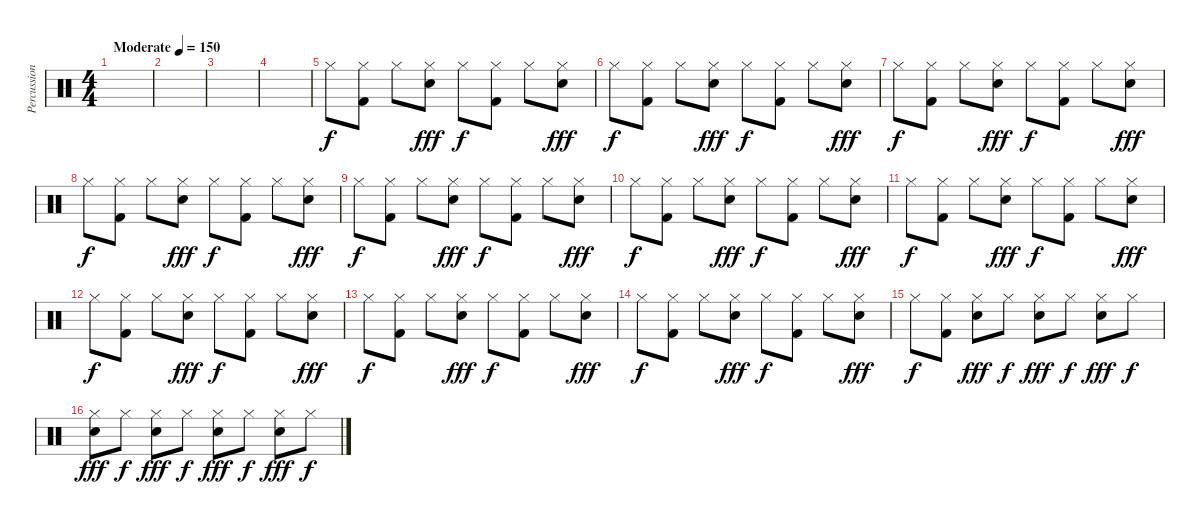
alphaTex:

\track ("Percussion" "Percussion") {instrument percussion}
\staff {score}
\articulation defaults
\ts (4 4)
\tempo (150 "Moderate")
\clef neutral
\ks c
|
|
|
|
"Hi-Hat (closed)".8 ("Hi-Hat (closed)" "Kick (hit) 2").8 "Hi-Hat (closed)".8 ("Hi-Hat (closed)" "Electric Snare (hit)").8{dy fff} "Hi-Hat (closed)".8{dy f} ("Hi-Hat (closed)" "Kick (hit) 2").8 "Hi-Hat (closed)".8 ("Hi-Hat (closed)" "Electric Snare (hit)").8{dy fff} |
"Hi-Hat (closed)".8{dy f} ("Hi-Hat (closed)" "Kick (hit) 2").8 "Hi-Hat (closed)".8 ("Hi-Hat (closed)" "Electric Snare (hit)").8{dy fff} "Hi-Hat (closed)".8{dy f} ("Hi-Hat (closed)" "Kick (hit) 2").8 "Hi-Hat (closed)".8 ("Hi-Hat (closed)" "Electric Snare (hit)").8{dy fff} |
"Hi-Hat (closed)".8{dy f} ("Hi-Hat (closed)" "Kick (hit) 2").8 "Hi-Hat (closed)".8 ("Hi-Hat (closed)" "Electric Snare (hit)").8{dy fff} "Hi-Hat (closed)".8{dy f} ("Hi-Hat (closed)" "Kick (hit) 2").8 "Hi-Hat (closed)".8 ("Hi-Hat (closed)" "Electric Snare (hit)").8{dy fff} |
"Hi-Hat (closed)".8{dy f} ("Hi-Hat (closed)" "Kick (hit) 2").8 "Hi-Hat (closed)".8 ("Hi-Hat (closed)" "Electric Snare (hit)").8{dy fff} "Hi-Hat (closed)".8{dy f} ("Hi-Hat (closed)" "Kick (hit) 2").8 "Hi-Hat (closed)".8 ("Hi-Hat (closed)" "Electric Snare (hit)").8{dy fff} |
"Hi-Hat (closed)".8{dy f} ("Hi-Hat (closed)" "Kick (hit) 2").8 "Hi-Hat (closed)".8 ("Hi-Hat (closed)" "Electric Snare (hit)").8{dy fff} "Hi-Hat (closed)".8{dy f} ("Hi-Hat (closed)" "Kick (hit) 2").8 "Hi-Hat (closed)".8 ("Hi-Hat (closed)" "Electric Snare (hit)").8{dy fff} |
"Hi-Hat (closed)".8{dy f} ("Hi-Hat (closed)" "Kick (hit) 2").8 "Hi-Hat (closed)".8 ("Hi-Hat (closed)" "Electric Snare (hit)").8{dy fff} "Hi-Hat (closed)".8{dy f} ("Hi-Hat (closed)" "Kick (hit) 2").8 "Hi-Hat (closed)".8 ("Hi-Hat (closed)" "Electric Snare (hit)").8{dy fff} |
"Hi-Hat (closed)".8{dy f} ("Hi-Hat (closed)" "Kick (hit) 2").8 "Hi-Hat (closed)".8 ("Hi-Hat (closed)" "Electric Snare (hit)").8{dy fff} "Hi-Hat (closed)".8{dy f} ("Hi-Hat (closed)" "Kick (hit) 2").8 "Hi-Hat (closed)".8 ("Hi-Hat (closed)" "Electric Snare (hit)").8{dy fff} |
"Hi-Hat (closed)".8{dy f} ("Hi-Hat (closed)" "Kick (hit) 2").8 "Hi-Hat (closed)".8 ("Hi-Hat (closed)" "Electric Snare (hit)").8{dy fff} "Hi-Hat (closed)".8{dy f} ("Hi-Hat (closed)" "Kick (hit) 2").8 "Hi-Hat (closed)".8 ("Hi-Hat (closed)" "Electric Snare (hit)").8{dy fff} |
"Hi-Hat (closed)".8{dy f} ("Hi-Hat (closed)" "Kick (hit) 2").8 "Hi-Hat (closed)".8 ("Hi-Hat (closed)" "Electric Snare (hit)").8{dy fff} "Hi-Hat (closed)".8{dy f} ("Hi-Hat (closed)" "Kick (hit) 2").8 "Hi-Hat (closed)".8 ("Hi-Hat (closed)" "Electric Snare (hit)").8{dy fff} |
"Hi-Hat (closed)".8{dy f} ("Hi-Hat (closed)" "Kick (hit) 2").8 "Hi-Hat (closed)".8 ("Hi-Hat (closed)" "Electric Snare (hit)").8{dy fff} "Hi-Hat (closed)".8{dy f} ("Hi-Hat (closed)" "Kick (hit) 2").8 "Hi-Hat (closed)".8 ("Hi-Hat (closed)" "Electric Snare (hit)").8{dy fff} |
"Hi-Hat (closed)".8{dy f} ("Hi-Hat (closed)" "Kick (hit) 2").8 ("Hi-Hat (closed)" "Electric Snare (hit)").8{dy fff} "Hi-Hat (closed)".8{dy f} ("Hi-Hat (closed)" "Electric Snare (hit)").8{dy fff} "Hi-Hat (closed)".8{dy f} ("Hi-Hat (closed)" "Electric Snare (hit)").8{dy fff} "Hi-Hat (closed)".8{dy f} |
("Hi-Hat (closed)" "Electric Snare (hit)").8{dy fff} "Hi-Hat (closed)".8{dy f} ("Hi-Hat (closed)" "Electric Snare (hit)").8{dy fff} "Hi-Hat (closed)".8{dy f} ("Hi-Hat (closed)" "Electric Snare (hit)").8{dy fff} "Hi-Hat (closed)".8{dy f} ("Hi-Hat (closed)" "Electric Snare (hit)").8{dy fff} "Hi-Hat (closed)".8{dy f}
